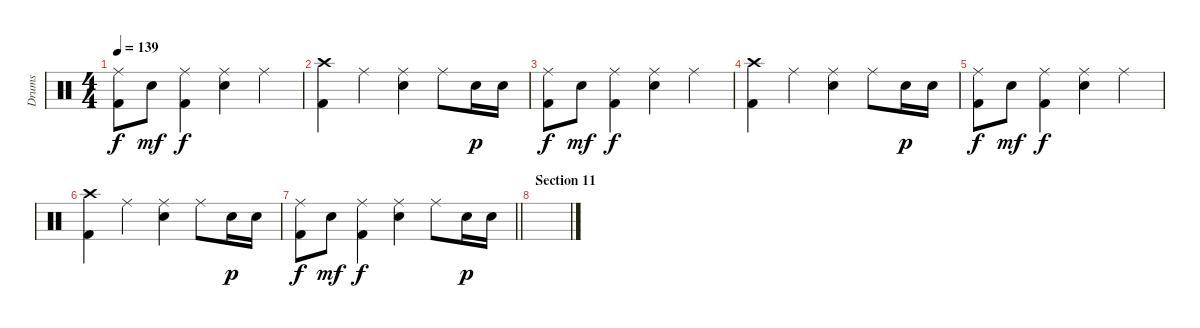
\track ("Drums" "Drums") {instrument percussion}
\staff {score}
\articulation defaults
\ts (4 4)
\tempo 139
\clef neutral
\ks c
("Ride (middle)" "Kick (hit) 2").8{dy f} "Electric Snare (hit)".8{dy mf} ("Ride (middle)" "Kick (hit) 2").4{dy f} ("Ride (middle)" "Electric Snare (hit)").4 "Ride (middle)".4 |
("Crash high (hit)" "Kick (hit) 2").4 "Ride (middle)".4 ("Ride (middle)" "Electric Snare (hit)").4 "Ride (middle)".8 "Electric Snare (hit)".16{dy p} "Electric Snare (hit)".16 |
("Ride (middle)" "Kick (hit) 2").8{dy f} "Electric Snare (hit)".8{dy mf} ("Ride (middle)" "Kick (hit) 2").4{dy f} ("Ride (middle)" "Electric Snare (hit)").4 "Ride (middle)".4 |
("Crash high (hit)" "Kick (hit) 2").4 "Ride (middle)".4 ("Ride (middle)" "Electric Snare (hit)").4 "Ride (middle)".8 "Electric Snare (hit)".16{dy p} "Electric Snare (hit)".16 |
("Ride (middle)" "Kick (hit) 2").8{dy f} "Electric Snare (hit)".8{dy mf} ("Ride (middle)" "Kick (hit) 2").4{dy f} ("Ride (middle)" "Electric Snare (hit)").4 "Ride (middle)".4 |
("Crash high (hit)" "Kick (hit) 2").4 "Ride (middle)".4 ("Ride (middle)" "Electric Snare (hit)").4 "Ride (middle)".8 "Electric Snare (hit)".16{dy p} "Electric Snare (hit)".16 |
\barLineRight lightlight
("Ride (middle)" "Kick (hit) 2").8{dy f} "Electric Snare (hit)".8{dy mf} ("Ride (middle)" "Kick (hit) 2").4{dy f} ("Ride (middle)" "Electric Snare (hit)").4 "Ride (middle)".8 "Electric Snare (hit)".16{dy p} "Electric Snare (hit)".16 |
\section ("" "Section 11")
